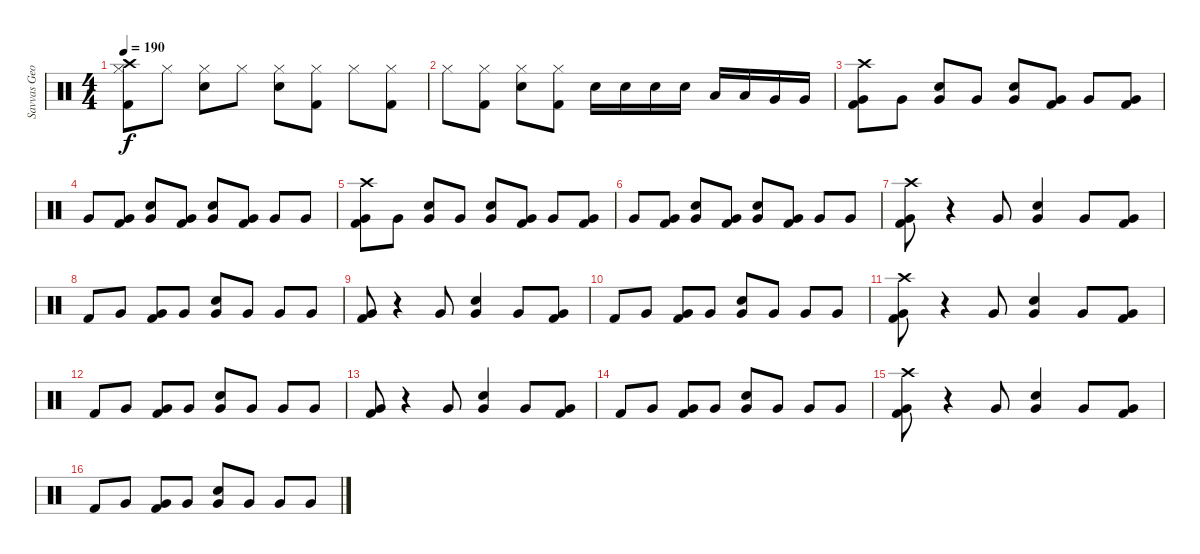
\track ("Savvas Georgiadis" "Savvas Geo") {instrument percussion}
\staff {score}
\articulation defaults
\ts (4 4)
\tempo 190
\clef neutral
\ks c
("Crash high (hit)" "Hi-Hat (closed)" "Kick (hit) 2").8{dy f} "Hi-Hat (closed)".8 ("Hi-Hat (closed)" "Electric Snare (hit)").8 "Hi-Hat (closed)".8 ("Hi-Hat (closed)" "Electric Snare (hit)").8 ("Hi-Hat (closed)" "Kick (hit) 2").8 "Hi-Hat (closed)".8 ("Hi-Hat (closed)" "Kick (hit) 2").8 |
"Hi-Hat (closed)".8 ("Hi-Hat (closed)" "Kick (hit) 2").8 ("Hi-Hat (closed)" "Electric Snare (hit)").8 ("Hi-Hat (closed)" "Kick (hit) 2").8 "Electric Snare (hit)".16 "Electric Snare (hit)".16 "Electric Snare (hit)".16 "Electric Snare (hit)".16 "Low Tom (hit)".16 "Low Tom (hit)".16 "Very Low Tom (hit)".16 "Very Low Tom (hit)".16 |
("Crash high (hit)" "Kick (hit) 2" "Very Low Tom (hit)").8 "Very Low Tom (hit)".8 ("Electric Snare (hit)" "Very Low Tom (hit)").8 "Very Low Tom (hit)".8 ("Electric Snare (hit)" "Very Low Tom (hit)").8 ("Kick (hit) 2" "Very Low Tom (hit)").8 "Very Low Tom (hit)".8 ("Kick (hit) 2" "Very Low Tom (hit)").8 |
"Very Low Tom (hit)".8 ("Kick (hit) 2" "Very Low Tom (hit)").8 ("Electric Snare (hit)" "Very Low Tom (hit)").8 ("Kick (hit) 2" "Very Low Tom (hit)").8 ("Electric Snare (hit)" "Very Low Tom (hit)").8 ("Kick (hit) 2" "Very Low Tom (hit)").8 "Very Low Tom (hit)".8 "Very Low Tom (hit)".8 |
("Crash high (hit)" "Kick (hit) 2" "Very Low Tom (hit)").8 "Very Low Tom (hit)".8 ("Electric Snare (hit)" "Very Low Tom (hit)").8 "Very Low Tom (hit)".8 ("Electric Snare (hit)" "Very Low Tom (hit)").8 ("Kick (hit) 2" "Very Low Tom (hit)").8 "Very Low Tom (hit)".8 ("Kick (hit) 2" "Very Low Tom (hit)").8 |
"Very Low Tom (hit)".8 ("Kick (hit) 2" "Very Low Tom (hit)").8 ("Electric Snare (hit)" "Very Low Tom (hit)").8 ("Kick (hit) 2" "Very Low Tom (hit)").8 ("Electric Snare (hit)" "Very Low Tom (hit)").8 ("Kick (hit) 2" "Very Low Tom (hit)").8 "Very Low Tom (hit)".8 "Very Low Tom (hit)".8 |
("Crash high (hit)" "Kick (hit) 2" "Very Low Tom (hit)").8 r.4 "Very Low Tom (hit)".8 ("Electric Snare (hit)" "Very Low Tom (hit)").4 "Very Low Tom (hit)".8 ("Kick (hit) 2" "Very Low Tom (hit)").8 |
"Kick (hit) 2".8 "Very Low Tom (hit)".8 ("Kick (hit) 2" "Very Low Tom (hit)").8 "Very Low Tom (hit)".8 ("Electric Snare (hit)" "Very Low Tom (hit)").8 "Very Low Tom (hit)".8 "Very Low Tom (hit)".8 "Very Low Tom (hit)".8 |
("Kick (hit) 2" "Very Low Tom (hit)").8 r.4 "Very Low Tom (hit)".8 ("Electric Snare (hit)" "Very Low Tom (hit)").4 "Very Low Tom (hit)".8 ("Kick (hit) 2" "Very Low Tom (hit)").8 |
"Kick (hit) 2".8 "Very Low Tom (hit)".8 ("Kick (hit) 2" "Very Low Tom (hit)").8 "Very Low Tom (hit)".8 ("Electric Snare (hit)" "Very Low Tom (hit)").8 "Very Low Tom (hit)".8 "Very Low Tom (hit)".8 "Very Low Tom (hit)".8 |
("Crash high (hit)" "Kick (hit) 2" "Very Low Tom (hit)").8 r.4 "Very Low Tom (hit)".8 ("Electric Snare (hit)" "Very Low Tom (hit)").4 "Very Low Tom (hit)".8 ("Kick (hit) 2" "Very Low Tom (hit)").8 |
"Kick (hit) 2".8 "Very Low Tom (hit)".8 ("Kick (hit) 2" "Very Low Tom (hit)").8 "Very Low Tom (hit)".8 ("Electric Snare (hit)" "Very Low Tom (hit)").8 "Very Low Tom (hit)".8 "Very Low Tom (hit)".8 "Very Low Tom (hit)".8 |
("Kick (hit) 2" "Very Low Tom (hit)").8 r.4 "Very Low Tom (hit)".8 ("Electric Snare (hit)" "Very Low Tom (hit)").4 "Very Low Tom (hit)".8 ("Kick (hit) 2" "Very Low Tom (hit)").8 |
"Kick (hit) 2".8 "Very Low Tom (hit)".8 ("Kick (hit) 2" "Very Low Tom (hit)").8 "Very Low Tom (hit)".8 ("Electric Snare (hit)" "Very Low Tom (hit)").8 "Very Low Tom (hit)".8 "Very Low Tom (hit)".8 "Very Low Tom (hit)".8 |
("Crash high (hit)" "Kick (hit) 2" "Very Low Tom (hit)").8 r.4 "Very Low Tom (hit)".8 ("Electric Snare (hit)" "Very Low Tom (hit)").4 "Very Low Tom (hit)".8 ("Kick (hit) 2" "Very Low Tom (hit)").8 |
"Kick (hit) 2".8 "Very Low Tom (hit)".8 ("Kick (hit) 2" "Very Low Tom (hit)").8 "Very Low Tom (hit)".8 ("Electric Snare (hit)" "Very Low Tom (hit)").8 "Very Low Tom (hit)".8 "Very Low Tom (hit)".8 "Very Low Tom (hit)".8
